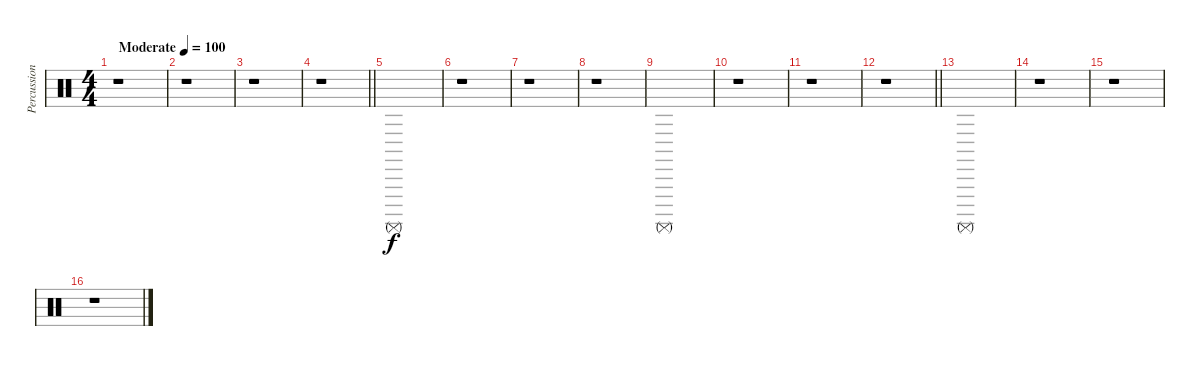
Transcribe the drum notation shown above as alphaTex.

\track ("Percussion" "Percussion") {instrument percussion}
\staff {score}
\articulation defaults
\ts (4 4)
\tempo (100 "Moderate")
\clef neutral
\ks c
r.1{dy f} |
r.1 |
r.1 |
\barLineRight lightlight
r.1 |
"Surdo (mute)".1{volume 5} |
r.1 |
r.1 |
r.1 |
"Surdo (mute)".1 |
r.1 |
r.1 |
\barLineRight lightlight
r.1 |
"Surdo (mute)".1 |
r.1 |
r.1 |
r.1
